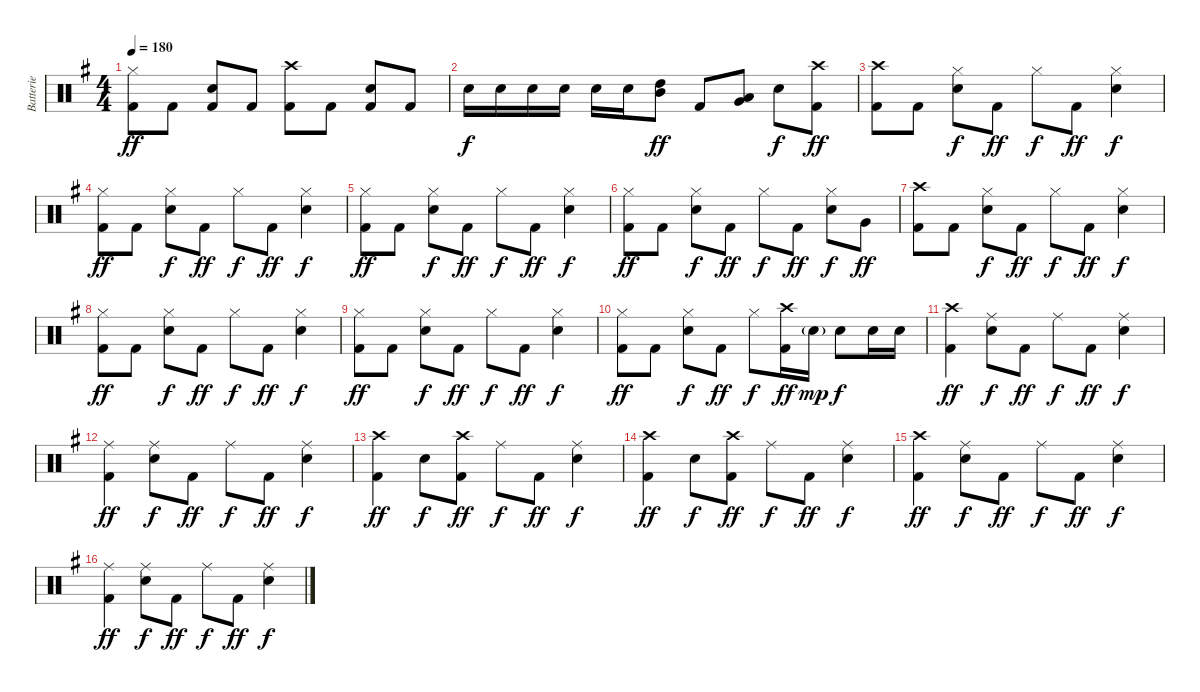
\track ("Batterie" "Batterie") {instrument percussion}
\staff {score}
\articulation defaults
\ts (4 4)
\tempo 180
\clef neutral
\ks g
("Hi-Hat (closed)" "Kick (hit) 2").8{dy ff} "Kick (hit) 2".8 ("Snare (hit) 2" "Kick (hit) 2").8 "Kick (hit) 2".8 ("Crash high (hit)" "Kick (hit) 2").8 "Kick (hit) 2".8 ("Snare (hit) 2" "Kick (hit) 2").8 "Kick (hit) 2".8 |
"Snare (hit) 2".16{dy f} "Snare (hit) 2".16 "Snare (hit) 2".16 "Snare (hit) 2".16 "Snare (hit) 2".16 "Snare (hit) 2".16 ("High Tom (hit)" "Mid Tom (hit)").8{dy ff} "Kick (hit) 2".8 ("Low Tom (hit)" "Very Low Tom (hit)").8 "Snare (hit) 2".8{dy f} ("Crash high (hit)" "Kick (hit) 2").8{dy ff} |
("Crash high (hit)" "Kick (hit) 2").8 "Kick (hit) 2".8 ("Hi-Hat (closed)" "Snare (hit) 2").8{dy f} "Kick (hit) 2".8{dy ff} "Hi-Hat (closed)".8{dy f} "Kick (hit) 2".8{dy ff} ("Hi-Hat (closed)" "Snare (hit) 2").4{dy f} |
("Hi-Hat (closed)" "Kick (hit) 2").8{dy ff} "Kick (hit) 2".8 ("Hi-Hat (closed)" "Snare (hit) 2").8{dy f} "Kick (hit) 2".8{dy ff} "Hi-Hat (closed)".8{dy f} "Kick (hit) 2".8{dy ff} ("Hi-Hat (closed)" "Snare (hit) 2").4{dy f} |
("Hi-Hat (closed)" "Kick (hit) 2").8{dy ff} "Kick (hit) 2".8 ("Hi-Hat (closed)" "Snare (hit) 2").8{dy f} "Kick (hit) 2".8{dy ff} "Hi-Hat (closed)".8{dy f} "Kick (hit) 2".8{dy ff} ("Hi-Hat (closed)" "Snare (hit) 2").4{dy f} |
("Hi-Hat (closed)" "Kick (hit) 2").8{dy ff} "Kick (hit) 2".8 ("Hi-Hat (closed)" "Snare (hit) 2").8{dy f} "Kick (hit) 2".8{dy ff} "Hi-Hat (closed)".8{dy f} "Kick (hit) 2".8{dy ff} ("Hi-Hat (closed)" "Snare (hit) 2").8{dy f} "Very Low Tom (hit)".8{dy ff} |
("Crash high (hit)" "Kick (hit) 2").8 "Kick (hit) 2".8 ("Hi-Hat (closed)" "Snare (hit) 2").8{dy f} "Kick (hit) 2".8{dy ff} "Hi-Hat (closed)".8{dy f} "Kick (hit) 2".8{dy ff} ("Hi-Hat (closed)" "Snare (hit) 2").4{dy f} |
("Hi-Hat (closed)" "Kick (hit) 2").8{dy ff} "Kick (hit) 2".8 ("Hi-Hat (closed)" "Snare (hit) 2").8{dy f} "Kick (hit) 2".8{dy ff} "Hi-Hat (closed)".8{dy f} "Kick (hit) 2".8{dy ff} ("Hi-Hat (closed)" "Snare (hit) 2").4{dy f} |
("Hi-Hat (closed)" "Kick (hit) 2").8{dy ff} "Kick (hit) 2".8 ("Hi-Hat (closed)" "Snare (hit) 2").8{dy f} "Kick (hit) 2".8{dy ff} "Hi-Hat (closed)".8{dy f} "Kick (hit) 2".8{dy ff} ("Hi-Hat (closed)" "Snare (hit) 2").4{dy f} |
("Hi-Hat (closed)" "Kick (hit) 2").8{dy ff} "Kick (hit) 2".8 ("Hi-Hat (closed)" "Snare (hit) 2").8{dy f} "Kick (hit) 2".8{dy ff} "Hi-Hat (closed)".8{dy f} ("Crash high (hit)" "Kick (hit) 2").16{dy ff} "Snare (hit) 2"{g}.16{dy mp} "Snare (hit) 2".8{dy f} "Snare (hit) 2".16 "Snare (hit) 2".16 |
("Crash high (hit)" "Kick (hit) 2").4{dy ff} ("Ride (middle)" "Snare (hit) 2").8{dy f} "Kick (hit) 2".8{dy ff} "Ride (middle)".8{dy f} "Kick (hit) 2".8{dy ff} ("Ride (middle)" "Snare (hit) 2").4{dy f} |
("Ride (middle)" "Kick (hit) 2").4{dy ff} ("Ride (middle)" "Snare (hit) 2").8{dy f} "Kick (hit) 2".8{dy ff} "Ride (middle)".8{dy f} "Kick (hit) 2".8{dy ff} ("Ride (middle)" "Snare (hit) 2").4{dy f} |
("Crash high (hit)" "Kick (hit) 2").4{dy ff} "Snare (hit) 2".8{dy f} ("Crash high (hit)" "Kick (hit) 2").8{dy ff} "Ride (middle)".8{dy f} "Kick (hit) 2".8{dy ff} ("Ride (middle)" "Snare (hit) 2").4{dy f} |
("Crash high (hit)" "Kick (hit) 2").4{dy ff} "Snare (hit) 2".8{dy f} ("Crash high (hit)" "Kick (hit) 2").8{dy ff} "Ride (middle)".8{dy f} "Kick (hit) 2".8{dy ff} ("Ride (middle)" "Snare (hit) 2").4{dy f} |
("Crash high (hit)" "Kick (hit) 2").4{dy ff} ("Ride (middle)" "Snare (hit) 2").8{dy f} "Kick (hit) 2".8{dy ff} "Ride (middle)".8{dy f} "Kick (hit) 2".8{dy ff} ("Ride (middle)" "Snare (hit) 2").4{dy f} |
("Ride (middle)" "Kick (hit) 2").4{dy ff} ("Ride (middle)" "Snare (hit) 2").8{dy f} "Kick (hit) 2".8{dy ff} "Ride (middle)".8{dy f} "Kick (hit) 2".8{dy ff} ("Ride (middle)" "Snare (hit) 2").4{dy f}
